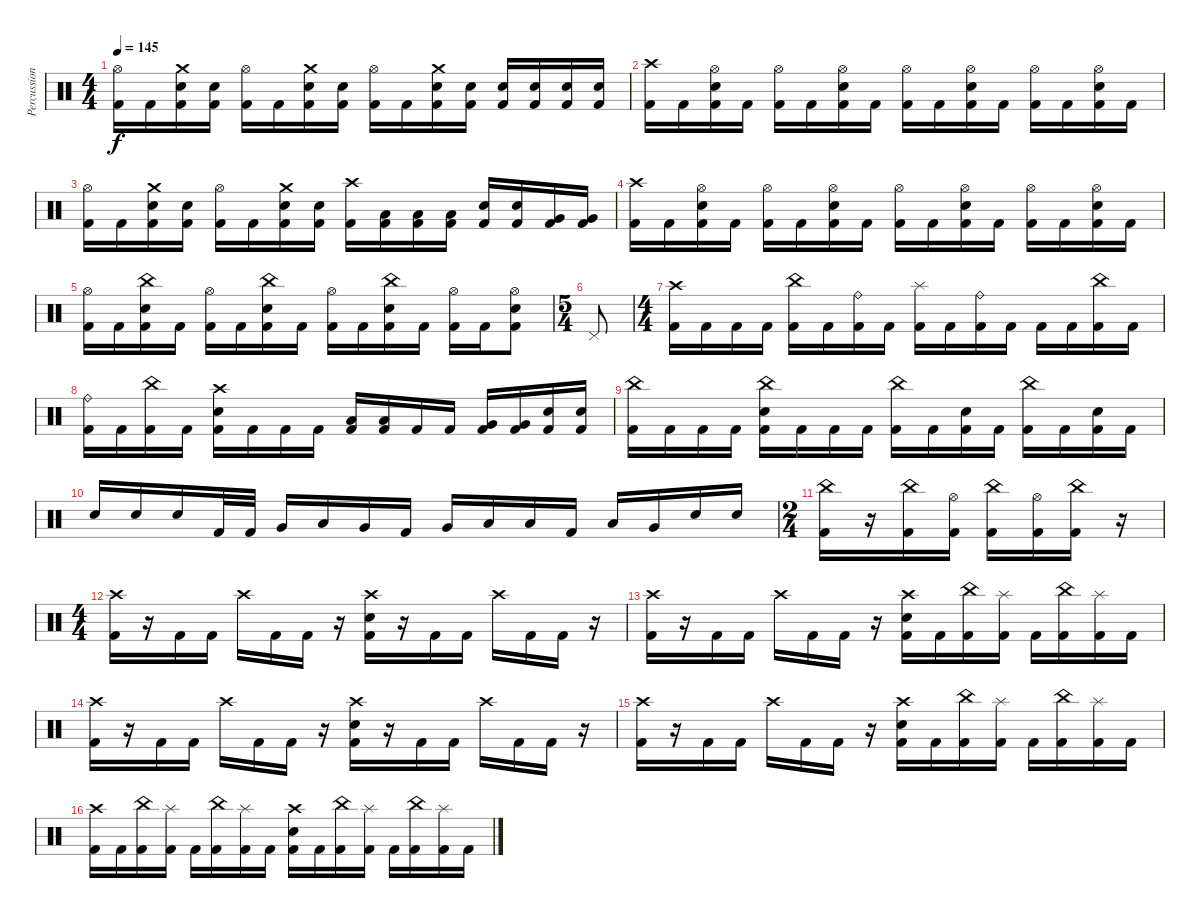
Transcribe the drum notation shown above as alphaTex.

\track ("Percussion" "Percussion") {instrument percussion}
\staff {score}
\articulation defaults
\ts (4 4)
\tempo 145
\clef neutral
\ks c
("Hi-Hat (open)" "Kick (hit) 2").16{dy f} "Kick (hit) 2".16 ("Crash medium (hit)" "Electric Snare (hit)" "Kick (hit) 2").16 ("Electric Snare (hit)" "Kick (hit) 2").16 ("Hi-Hat (open)" "Kick (hit) 2").16 "Kick (hit) 2".16 ("Crash medium (hit)" "Electric Snare (hit)" "Kick (hit) 2").16 ("Electric Snare (hit)" "Kick (hit) 2").16 ("Hi-Hat (open)" "Kick (hit) 2").16 "Kick (hit) 2".16 ("Crash medium (hit)" "Electric Snare (hit)" "Kick (hit) 2").16 ("Electric Snare (hit)" "Kick (hit) 2").16 ("Electric Snare (hit)" "Kick (hit) 2").16 ("Electric Snare (hit)" "Kick (hit) 2").16 ("Electric Snare (hit)" "Kick (hit) 2").16 ("Electric Snare (hit)" "Kick (hit) 2").16 |
("Crash high (hit)" "Kick (hit) 2").16 "Kick (hit) 2".16 ("Hi-Hat (open)" "Electric Snare (hit)" "Kick (hit) 2").16 "Kick (hit) 2".16 ("Hi-Hat (open)" "Kick (hit) 2").16 "Kick (hit) 2".16 ("Hi-Hat (open)" "Electric Snare (hit)" "Kick (hit) 2").16 "Kick (hit) 2".16 ("Hi-Hat (open)" "Kick (hit) 2").16 "Kick (hit) 2".16 ("Hi-Hat (open)" "Electric Snare (hit)" "Kick (hit) 2").16 "Kick (hit) 2".16 ("Hi-Hat (open)" "Kick (hit) 2").16 "Kick (hit) 2".16 ("Hi-Hat (open)" "Electric Snare (hit)" "Kick (hit) 2").16 "Kick (hit) 2".16 |
("Hi-Hat (open)" "Kick (hit) 2").16 "Kick (hit) 2".16 ("Crash medium (hit)" "Electric Snare (hit)" "Kick (hit) 2").16 ("Electric Snare (hit)" "Kick (hit) 2").16 ("Hi-Hat (open)" "Kick (hit) 2").16 "Kick (hit) 2".16 ("Crash medium (hit)" "Electric Snare (hit)" "Kick (hit) 2").16 ("Electric Snare (hit)" "Kick (hit) 2").16 ("Crash high (hit)" "Kick (hit) 2").16 ("Low Tom (hit)" "Kick (hit) 2").16 ("Low Tom (hit)" "Kick (hit) 2").16 ("Low Tom (hit)" "Kick (hit) 2").16 ("Electric Snare (hit)" "Kick (hit) 2").16 ("Electric Snare (hit)" "Kick (hit) 2").16 ("Very Low Tom (hit)" "Kick (hit) 2").16 ("Very Low Tom (hit)" "Kick (hit) 2").16 |
("Crash high (hit)" "Kick (hit) 2").16 "Kick (hit) 2".16 ("Hi-Hat (open)" "Electric Snare (hit)" "Kick (hit) 2").16 "Kick (hit) 2".16 ("Hi-Hat (open)" "Kick (hit) 2").16 "Kick (hit) 2".16 ("Hi-Hat (open)" "Electric Snare (hit)" "Kick (hit) 2").16 "Kick (hit) 2".16 ("Hi-Hat (open)" "Kick (hit) 2").16 "Kick (hit) 2".16 ("Hi-Hat (open)" "Electric Snare (hit)" "Kick (hit) 2").16 "Kick (hit) 2".16 ("Hi-Hat (open)" "Kick (hit) 2").16 "Kick (hit) 2".16 ("Hi-Hat (open)" "Electric Snare (hit)" "Kick (hit) 2").16 "Kick (hit) 2".16 |
("Hi-Hat (open)" "Kick (hit) 2").16 "Kick (hit) 2".16 ("China (hit)" "Electric Snare (hit)" "Kick (hit) 2").16 "Kick (hit) 2".16 ("Hi-Hat (open)" "Kick (hit) 2").16 "Kick (hit) 2".16 ("China (hit)" "Electric Snare (hit)" "Kick (hit) 2").16 "Kick (hit) 2".16 ("Hi-Hat (open)" "Kick (hit) 2").16 "Kick (hit) 2".16 ("China (hit)" "Electric Snare (hit)" "Kick (hit) 2").16 "Kick (hit) 2".16 ("Hi-Hat (open)" "Kick (hit) 2").16 "Kick (hit) 2".16 ("Hi-Hat (open)" "Electric Snare (hit)" "Kick (hit) 2").8 |
\ts (5 4)
"Pedal Hi-Hat (hit)".8 |
\ts (4 4)
("Crash high (hit)" "Kick (hit) 2").16 "Kick (hit) 2".16 "Kick (hit) 2".16 "Kick (hit) 2".16 ("China (hit)" "Kick (hit) 2").16 "Kick (hit) 2".16 ("Ride (bell)" "Kick (hit) 2").16 "Kick (hit) 2".16 ("Splash (hit)" "Kick (hit) 2").16 "Kick (hit) 2".16 ("Ride (bell)" "Kick (hit) 2").16 "Kick (hit) 2".16 "Kick (hit) 2".16 "Kick (hit) 2".16 ("China (hit)" "Kick (hit) 2").16 "Kick (hit) 2".16 |
("Ride (bell)" "Kick (hit) 2").16 "Kick (hit) 2".16 ("China (hit)" "Kick (hit) 2").16 "Kick (hit) 2".16 ("Crash high (hit)" "Electric Snare (hit)" "Kick (hit) 2").16 "Kick (hit) 2".16 "Kick (hit) 2".16 "Kick (hit) 2".16 ("Low Tom (hit)" "Kick (hit) 2").16 ("Low Tom (hit)" "Kick (hit) 2").16 "Kick (hit) 2".16 "Kick (hit) 2".16 ("Very Low Tom (hit)" "Kick (hit) 2").16 ("Very Low Tom (hit)" "Kick (hit) 2").16 ("Electric Snare (hit)" "Kick (hit) 2").16 ("Electric Snare (hit)" "Kick (hit) 2").16 |
("China (hit)" "Kick (hit) 2").16 "Kick (hit) 2".16 "Kick (hit) 2".16 "Kick (hit) 2".16 ("China (hit)" "Electric Snare (hit)" "Kick (hit) 2").16 "Kick (hit) 2".16 "Kick (hit) 2".16 "Kick (hit) 2".16 ("China (hit)" "Kick (hit) 2").16 "Kick (hit) 2".16 ("Electric Snare (hit)" "Kick (hit) 2").16 "Kick (hit) 2".16 ("China (hit)" "Kick (hit) 2").16 "Kick (hit) 2".16 ("Electric Snare (hit)" "Kick (hit) 2").16 "Kick (hit) 2".16 |
"Electric Snare (hit)".16 "Electric Snare (hit)".16 "Electric Snare (hit)".16 "Kick (hit) 2".32 "Kick (hit) 2".32 "Very Low Tom (hit)".16 "Low Tom (hit)".16 "Very Low Tom (hit)".16 "Kick (hit) 2".16 "Very Low Tom (hit)".16 "Low Tom (hit)".16 "Low Floor Tom (hit)".16 "Kick (hit) 2".16 "Low Floor Tom (hit)".16 "Very Low Tom (hit)".16 "Electric Snare (hit)".16 "Electric Snare (hit)".16 |
\ts (2 4)
("China (hit)" "Kick (hit) 2").16 r.16 ("China (hit)" "Kick (hit) 2").16 ("Hi-Hat (open)" "Kick (hit) 2").16 ("China (hit)" "Kick (hit) 2").16 ("Hi-Hat (open)" "Kick (hit) 2").16 ("China (hit)" "Kick (hit) 2").16 r.16 |
\ts (4 4)
("Crash high (hit)" "Kick (hit) 2").16 r.16 "Kick (hit) 2".16 "Kick (hit) 2".16 "Crash high (hit)".16 "Kick (hit) 2".16 "Kick (hit) 2".16 r.16 ("Crash high (hit)" "Electric Snare (hit)" "Kick (hit) 2").16 r.16 "Kick (hit) 2".16 "Kick (hit) 2".16 "Crash high (hit)".16 "Kick (hit) 2".16 "Kick (hit) 2".16 r.16 |
("Crash high (hit)" "Kick (hit) 2").16 r.16 "Kick (hit) 2".16 "Kick (hit) 2".16 "Crash high (hit)".16 "Kick (hit) 2".16 "Kick (hit) 2".16 r.16 ("Crash high (hit)" "Electric Snare (hit)" "Kick (hit) 2").16 "Kick (hit) 2".16 ("China (hit)" "Kick (hit) 2").16 ("Splash (hit)" "Kick (hit) 2").16 "Kick (hit) 2".16 ("China (hit)" "Kick (hit) 2").16 ("Splash (hit)" "Kick (hit) 2").16 "Kick (hit) 2".16 |
("Crash high (hit)" "Kick (hit) 2").16 r.16 "Kick (hit) 2".16 "Kick (hit) 2".16 "Crash high (hit)".16 "Kick (hit) 2".16 "Kick (hit) 2".16 r.16 ("Crash high (hit)" "Electric Snare (hit)" "Kick (hit) 2").16 r.16 "Kick (hit) 2".16 "Kick (hit) 2".16 "Crash high (hit)".16 "Kick (hit) 2".16 "Kick (hit) 2".16 r.16 |
("Crash high (hit)" "Kick (hit) 2").16 r.16 "Kick (hit) 2".16 "Kick (hit) 2".16 "Crash high (hit)".16 "Kick (hit) 2".16 "Kick (hit) 2".16 r.16 ("Crash high (hit)" "Electric Snare (hit)" "Kick (hit) 2").16 "Kick (hit) 2".16 ("China (hit)" "Kick (hit) 2").16 ("Splash (hit)" "Kick (hit) 2").16 "Kick (hit) 2".16 ("China (hit)" "Kick (hit) 2").16 ("Splash (hit)" "Kick (hit) 2").16 "Kick (hit) 2".16 |
("Crash high (hit)" "Kick (hit) 2").16 "Kick (hit) 2".16 ("China (hit)" "Kick (hit) 2").16 ("Splash (hit)" "Kick (hit) 2").16 "Kick (hit) 2".16 ("China (hit)" "Kick (hit) 2").16 ("Splash (hit)" "Kick (hit) 2").16 "Kick (hit) 2".16 ("Crash high (hit)" "Electric Snare (hit)" "Kick (hit) 2").16 "Kick (hit) 2".16 ("China (hit)" "Kick (hit) 2").16 ("Splash (hit)" "Kick (hit) 2").16 "Kick (hit) 2".16 ("China (hit)" "Kick (hit) 2").16 ("Splash (hit)" "Kick (hit) 2").16 "Kick (hit) 2".16
